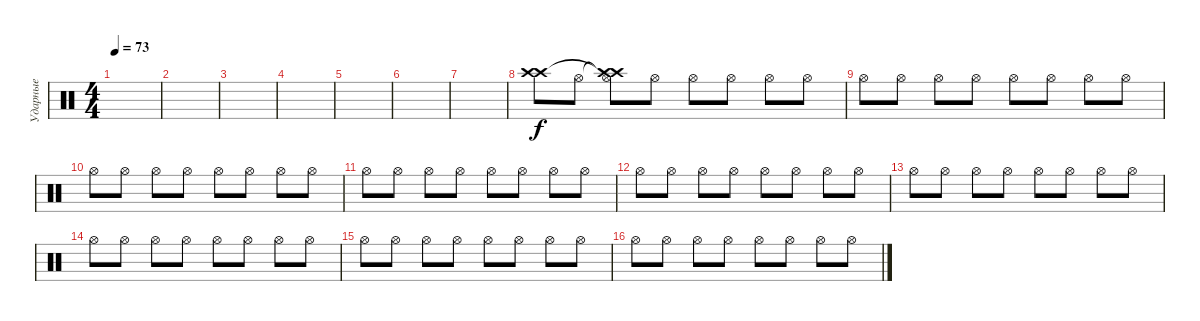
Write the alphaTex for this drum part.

\track ("Ударные" "Ударные") {instrument percussion}
\staff {score}
\articulation defaults
\ts (4 4)
\tempo 73
\clef neutral
\ks c
|
|
|
|
|
|
|
("Crash high (hit)" "Crash high (hit)").8 "Hi-Hat (open)".8 ("Crash high (hit)"{t} "Crash high (hit)"{t} "Hi-Hat (open)").8 "Hi-Hat (open)".8 "Hi-Hat (open)".8 "Hi-Hat (open)".8 "Hi-Hat (open)".8 "Hi-Hat (open)".8 |
"Hi-Hat (open)".8 "Hi-Hat (open)".8 "Hi-Hat (open)".8 "Hi-Hat (open)".8 "Hi-Hat (open)".8 "Hi-Hat (open)".8 "Hi-Hat (open)".8 "Hi-Hat (open)".8 |
"Hi-Hat (open)".8 "Hi-Hat (open)".8 "Hi-Hat (open)".8 "Hi-Hat (open)".8 "Hi-Hat (open)".8 "Hi-Hat (open)".8 "Hi-Hat (open)".8 "Hi-Hat (open)".8 |
"Hi-Hat (open)".8 "Hi-Hat (open)".8 "Hi-Hat (open)".8 "Hi-Hat (open)".8 "Hi-Hat (open)".8 "Hi-Hat (open)".8 "Hi-Hat (open)".8 "Hi-Hat (open)".8 |
"Hi-Hat (open)".8 "Hi-Hat (open)".8 "Hi-Hat (open)".8 "Hi-Hat (open)".8 "Hi-Hat (open)".8 "Hi-Hat (open)".8 "Hi-Hat (open)".8 "Hi-Hat (open)".8 |
"Hi-Hat (open)".8 "Hi-Hat (open)".8 "Hi-Hat (open)".8 "Hi-Hat (open)".8 "Hi-Hat (open)".8 "Hi-Hat (open)".8 "Hi-Hat (open)".8 "Hi-Hat (open)".8 |
"Hi-Hat (open)".8 "Hi-Hat (open)".8 "Hi-Hat (open)".8 "Hi-Hat (open)".8 "Hi-Hat (open)".8 "Hi-Hat (open)".8 "Hi-Hat (open)".8 "Hi-Hat (open)".8 |
"Hi-Hat (open)".8 "Hi-Hat (open)".8 "Hi-Hat (open)".8 "Hi-Hat (open)".8 "Hi-Hat (open)".8 "Hi-Hat (open)".8 "Hi-Hat (open)".8 "Hi-Hat (open)".8 |
"Hi-Hat (open)".8 "Hi-Hat (open)".8 "Hi-Hat (open)".8 "Hi-Hat (open)".8 "Hi-Hat (open)".8 "Hi-Hat (open)".8 "Hi-Hat (open)".8 "Hi-Hat (open)".8
